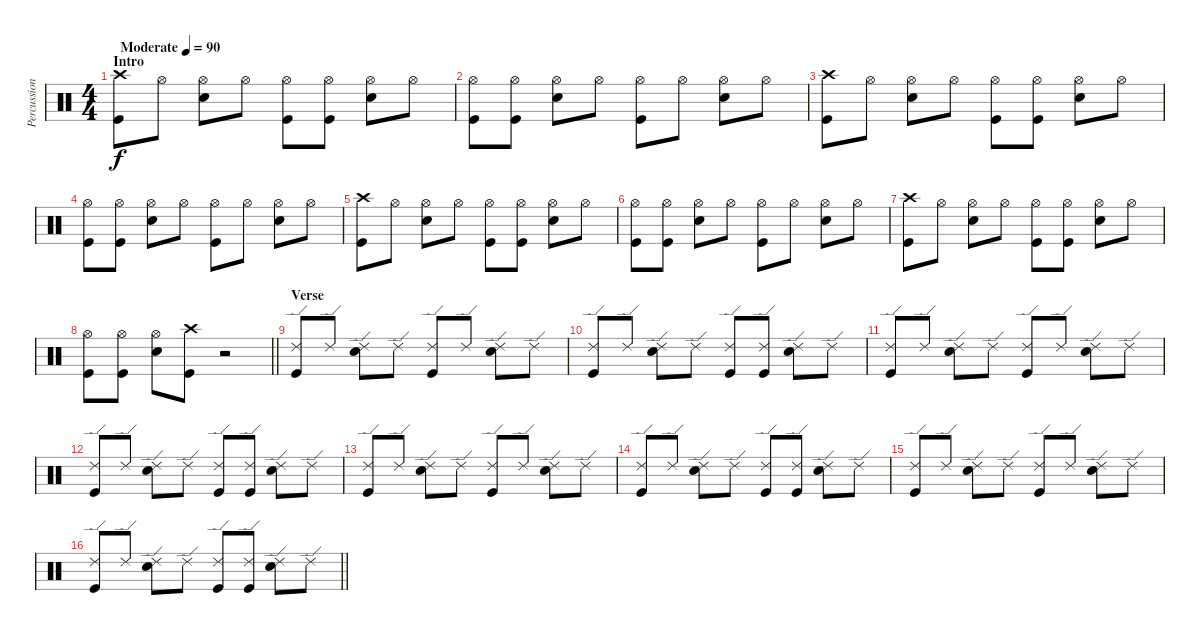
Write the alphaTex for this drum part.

\track ("Percussion" "Percussion") {instrument percussion}
\staff {score}
\articulation defaults
\ts (4 4)
\section ("" "Intro")
\tempo (90 "Moderate")
\clef neutral
\ks c
("Crash high (hit)" "Kick (hit)").8{dy f} "Hi-Hat (open)".8 ("Hi-Hat (open)" "Snare (hit) 2").8 "Hi-Hat (open)".8 ("Hi-Hat (open)" "Kick (hit)").8 ("Hi-Hat (open)" "Kick (hit)").8 ("Hi-Hat (open)" "Snare (hit) 2").8 "Hi-Hat (open)".8 |
("Hi-Hat (open)" "Kick (hit)").8 ("Hi-Hat (open)" "Kick (hit)").8 ("Hi-Hat (open)" "Snare (hit) 2").8 "Hi-Hat (open)".8 ("Hi-Hat (open)" "Kick (hit)").8 "Hi-Hat (open)".8 ("Hi-Hat (open)" "Snare (hit) 2").8 "Hi-Hat (open)".8 |
("Crash high (hit)" "Kick (hit)").8 "Hi-Hat (open)".8 ("Hi-Hat (open)" "Snare (hit) 2").8 "Hi-Hat (open)".8 ("Hi-Hat (open)" "Kick (hit)").8 ("Hi-Hat (open)" "Kick (hit)").8 ("Hi-Hat (open)" "Snare (hit) 2").8 "Hi-Hat (open)".8 |
("Hi-Hat (open)" "Kick (hit)").8 ("Hi-Hat (open)" "Kick (hit)").8 ("Hi-Hat (open)" "Snare (hit) 2").8 "Hi-Hat (open)".8 ("Hi-Hat (open)" "Kick (hit)").8 "Hi-Hat (open)".8 ("Hi-Hat (open)" "Snare (hit) 2").8 "Hi-Hat (open)".8 |
("Crash high (hit)" "Kick (hit)").8 "Hi-Hat (open)".8 ("Hi-Hat (open)" "Snare (hit) 2").8 "Hi-Hat (open)".8 ("Hi-Hat (open)" "Kick (hit)").8 ("Hi-Hat (open)" "Kick (hit)").8 ("Hi-Hat (open)" "Snare (hit) 2").8 "Hi-Hat (open)".8 |
("Hi-Hat (open)" "Kick (hit)").8 ("Hi-Hat (open)" "Kick (hit)").8 ("Hi-Hat (open)" "Snare (hit) 2").8 "Hi-Hat (open)".8 ("Hi-Hat (open)" "Kick (hit)").8 "Hi-Hat (open)".8 ("Hi-Hat (open)" "Snare (hit) 2").8 "Hi-Hat (open)".8 |
("Crash high (hit)" "Kick (hit)").8 "Hi-Hat (open)".8 ("Hi-Hat (open)" "Snare (hit) 2").8 "Hi-Hat (open)".8 ("Hi-Hat (open)" "Kick (hit)").8 ("Hi-Hat (open)" "Kick (hit)").8 ("Hi-Hat (open)" "Snare (hit) 2").8 "Hi-Hat (open)".8 |
\barLineRight lightlight
("Hi-Hat (open)" "Kick (hit)").8 ("Hi-Hat (open)" "Kick (hit)").8 ("Hi-Hat (open)" "Snare (hit) 2").8 ("Crash high (hit)" "Kick (hit)").8 r.2 |
\section ("" "Verse")
("Ride (edge) 2" "Kick (hit)").8 "Ride (edge) 2".8 ("Ride (edge) 2" "Snare (hit) 2").8 "Ride (edge) 2".8 ("Ride (edge) 2" "Kick (hit)").8 "Ride (edge) 2".8 ("Ride (edge) 2" "Snare (hit) 2").8 "Ride (edge) 2".8 |
("Ride (edge) 2" "Kick (hit)").8 "Ride (edge) 2".8 ("Ride (edge) 2" "Snare (hit) 2").8 "Ride (edge) 2".8 ("Ride (edge) 2" "Kick (hit)").8 ("Ride (edge) 2" "Kick (hit)").8 ("Ride (edge) 2" "Snare (hit) 2").8 "Ride (edge) 2".8 |
("Ride (edge) 2" "Kick (hit)").8 "Ride (edge) 2".8 ("Ride (edge) 2" "Snare (hit) 2").8 "Ride (edge) 2".8 ("Ride (edge) 2" "Kick (hit)").8 "Ride (edge) 2".8 ("Ride (edge) 2" "Snare (hit) 2").8 "Ride (edge) 2".8 |
("Ride (edge) 2" "Kick (hit)").8 "Ride (edge) 2".8 ("Ride (edge) 2" "Snare (hit) 2").8 "Ride (edge) 2".8 ("Ride (edge) 2" "Kick (hit)").8 ("Ride (edge) 2" "Kick (hit)").8 ("Ride (edge) 2" "Snare (hit) 2").8 "Ride (edge) 2".8 |
("Ride (edge) 2" "Kick (hit)").8 "Ride (edge) 2".8 ("Ride (edge) 2" "Snare (hit) 2").8 "Ride (edge) 2".8 ("Ride (edge) 2" "Kick (hit)").8 "Ride (edge) 2".8 ("Ride (edge) 2" "Snare (hit) 2").8 "Ride (edge) 2".8 |
("Ride (edge) 2" "Kick (hit)").8 "Ride (edge) 2".8 ("Ride (edge) 2" "Snare (hit) 2").8 "Ride (edge) 2".8 ("Ride (edge) 2" "Kick (hit)").8 ("Ride (edge) 2" "Kick (hit)").8 ("Ride (edge) 2" "Snare (hit) 2").8 "Ride (edge) 2".8 |
("Ride (edge) 2" "Kick (hit)").8 "Ride (edge) 2".8 ("Ride (edge) 2" "Snare (hit) 2").8 "Ride (edge) 2".8 ("Ride (edge) 2" "Kick (hit)").8 "Ride (edge) 2".8 ("Ride (edge) 2" "Snare (hit) 2").8 "Ride (edge) 2".8 |
\barLineRight lightlight
("Ride (edge) 2" "Kick (hit)").8 "Ride (edge) 2".8 ("Ride (edge) 2" "Snare (hit) 2").8 "Ride (edge) 2".8 ("Ride (edge) 2" "Kick (hit)").8 ("Ride (edge) 2" "Kick (hit)").8 ("Ride (edge) 2" "Snare (hit) 2").8 "Ride (edge) 2".8
